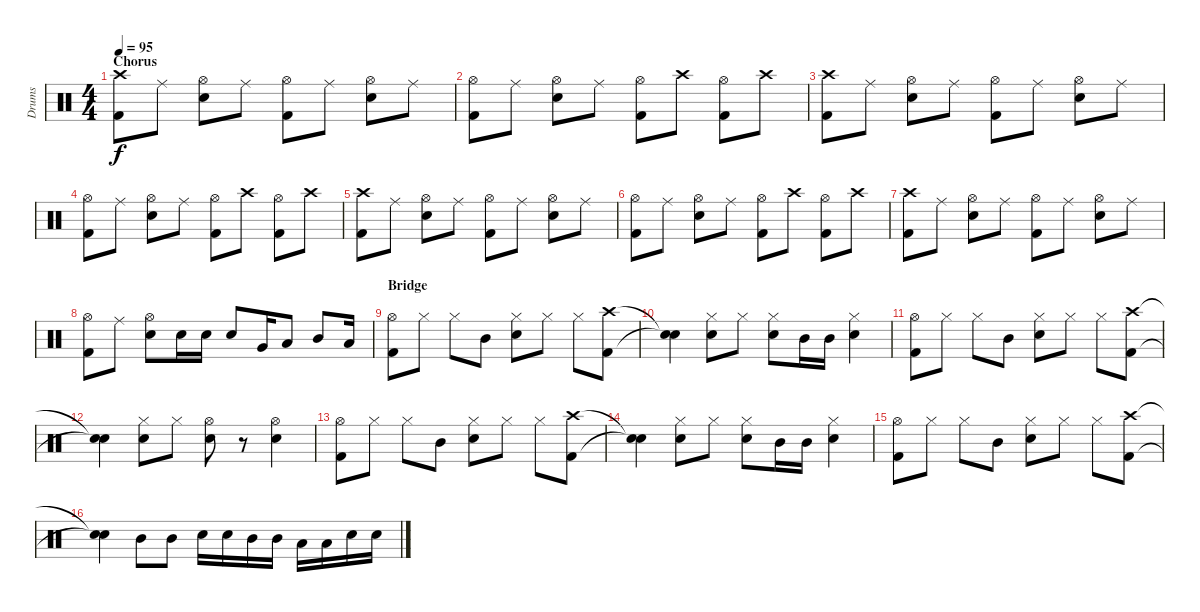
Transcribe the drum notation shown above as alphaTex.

\track ("Drums" "Drums") {instrument percussion}
\staff {score}
\articulation defaults
\ts (4 4)
\section ("" "Chorus")
\tempo 95
\clef neutral
\ks c
("Kick (hit) 2" "Crash high (hit)").8{dy f} "Ride (middle)".8 ("Snare (hit) 2" "Hi-Hat (open)").8 "Ride (middle)".8 ("Kick (hit) 2" "Hi-Hat (open)").8 "Ride (middle)".8 ("Snare (hit) 2" "Hi-Hat (open)").8 "Ride (middle)".8 |
("Kick (hit) 2" "Hi-Hat (open)").8 "Ride (middle)".8 ("Snare (hit) 2" "Hi-Hat (open)").8 "Ride (middle)".8 ("Kick (hit) 2" "Hi-Hat (open)").8 "Crash high (hit)".8 ("Kick (hit) 2" "Hi-Hat (open)").8 "Crash high (hit)".8 |
("Kick (hit) 2" "Crash high (hit)").8 "Ride (middle)".8 ("Snare (hit) 2" "Hi-Hat (open)").8 "Ride (middle)".8 ("Kick (hit) 2" "Hi-Hat (open)").8 "Ride (middle)".8 ("Snare (hit) 2" "Hi-Hat (open)").8 "Ride (middle)".8 |
("Kick (hit) 2" "Hi-Hat (open)").8 "Ride (middle)".8 ("Snare (hit) 2" "Hi-Hat (open)").8 "Ride (middle)".8 ("Kick (hit) 2" "Hi-Hat (open)").8 "Crash high (hit)".8 ("Kick (hit) 2" "Hi-Hat (open)").8 "Crash high (hit)".8 |
("Kick (hit) 2" "Crash high (hit)").8 "Ride (middle)".8 ("Snare (hit) 2" "Hi-Hat (open)").8 "Ride (middle)".8 ("Kick (hit) 2" "Hi-Hat (open)").8 "Ride (middle)".8 ("Snare (hit) 2" "Hi-Hat (open)").8 "Ride (middle)".8 |
("Kick (hit) 2" "Hi-Hat (open)").8 "Ride (middle)".8 ("Snare (hit) 2" "Hi-Hat (open)").8 "Ride (middle)".8 ("Kick (hit) 2" "Hi-Hat (open)").8 "Crash high (hit)".8 ("Kick (hit) 2" "Hi-Hat (open)").8 "Crash high (hit)".8 |
("Kick (hit) 2" "Crash high (hit)").8 "Ride (middle)".8 ("Snare (hit) 2" "Hi-Hat (open)").8 "Ride (middle)".8 ("Kick (hit) 2" "Hi-Hat (open)").8 "Ride (middle)".8 ("Snare (hit) 2" "Hi-Hat (open)").8 "Ride (middle)".8 |
("Kick (hit) 2" "Hi-Hat (open)").8 "Ride (middle)".8 ("Snare (hit) 2" "Hi-Hat (open)").8 "Snare (hit) 2".16 "Snare (hit) 2".16 "Snare (hit) 2".8 "Very Low Tom (hit)".16 "Low Tom (hit)".8 "Mid Tom (hit)".8 "Low Tom (hit)".16 |
\section ("" "Bridge")
("Kick (hit) 2" "Hi-Hat (open)").8 "Hi-Hat (closed)".8 "Hi-Hat (closed)".8 "Mid Tom (hit)".8 ("Snare (hit) 2" "Hi-Hat (closed)").8 "Hi-Hat (closed)".8 "Hi-Hat (closed)".8 ("Kick (hit) 2" "Crash high (hit)").8 |
("Snare (hit)"{t} "Snare (hit)"{t}).4 ("Snare (hit) 2" "Hi-Hat (closed)").8 "Hi-Hat (closed)".8 ("Snare (hit) 2" "Hi-Hat (closed)").8 "Mid Tom (hit)".16 "Mid Tom (hit)".16 ("Snare (hit) 2" "Hi-Hat (closed)").4 |
("Kick (hit) 2" "Hi-Hat (open)").8 "Hi-Hat (closed)".8 "Hi-Hat (closed)".8 "Mid Tom (hit)".8 ("Snare (hit) 2" "Hi-Hat (closed)").8 "Hi-Hat (closed)".8 "Hi-Hat (closed)".8 ("Kick (hit) 2" "Crash high (hit)").8 |
("Snare (hit)"{t} "Snare (hit)"{t}).4 ("Snare (hit) 2" "Hi-Hat (closed)").8 "Hi-Hat (closed)".8 ("Snare (hit) 2" "Hi-Hat (open)").8 r.8 ("Snare (hit) 2" "Hi-Hat (open)").4 |
("Kick (hit) 2" "Hi-Hat (open)").8 "Hi-Hat (closed)".8 "Hi-Hat (closed)".8 "Mid Tom (hit)".8 ("Snare (hit) 2" "Hi-Hat (closed)").8 "Hi-Hat (closed)".8 "Hi-Hat (closed)".8 ("Kick (hit) 2" "Crash high (hit)").8 |
("Snare (hit)"{t} "Snare (hit)"{t}).4 ("Snare (hit) 2" "Hi-Hat (closed)").8 "Hi-Hat (closed)".8 ("Snare (hit) 2" "Hi-Hat (closed)").8 "Mid Tom (hit)".16 "Mid Tom (hit)".16 ("Snare (hit) 2" "Hi-Hat (closed)").4 |
("Kick (hit) 2" "Hi-Hat (open)").8 "Hi-Hat (closed)".8 "Hi-Hat (closed)".8 "Mid Tom (hit)".8 ("Snare (hit) 2" "Hi-Hat (closed)").8 "Hi-Hat (closed)".8 "Hi-Hat (closed)".8 ("Kick (hit) 2" "Crash high (hit)").8 |
("Snare (hit)"{t} "Snare (hit)"{t}).4 "Mid Tom (hit)".8 "Mid Tom (hit)".8 "Snare (hit) 2".16 "Snare (hit) 2".16 "Mid Tom (hit)".16 "Mid Tom (hit)".16 "Low Tom (hit)".16 "Low Tom (hit)".16 "Snare (hit) 2".16 "Snare (hit) 2".16
